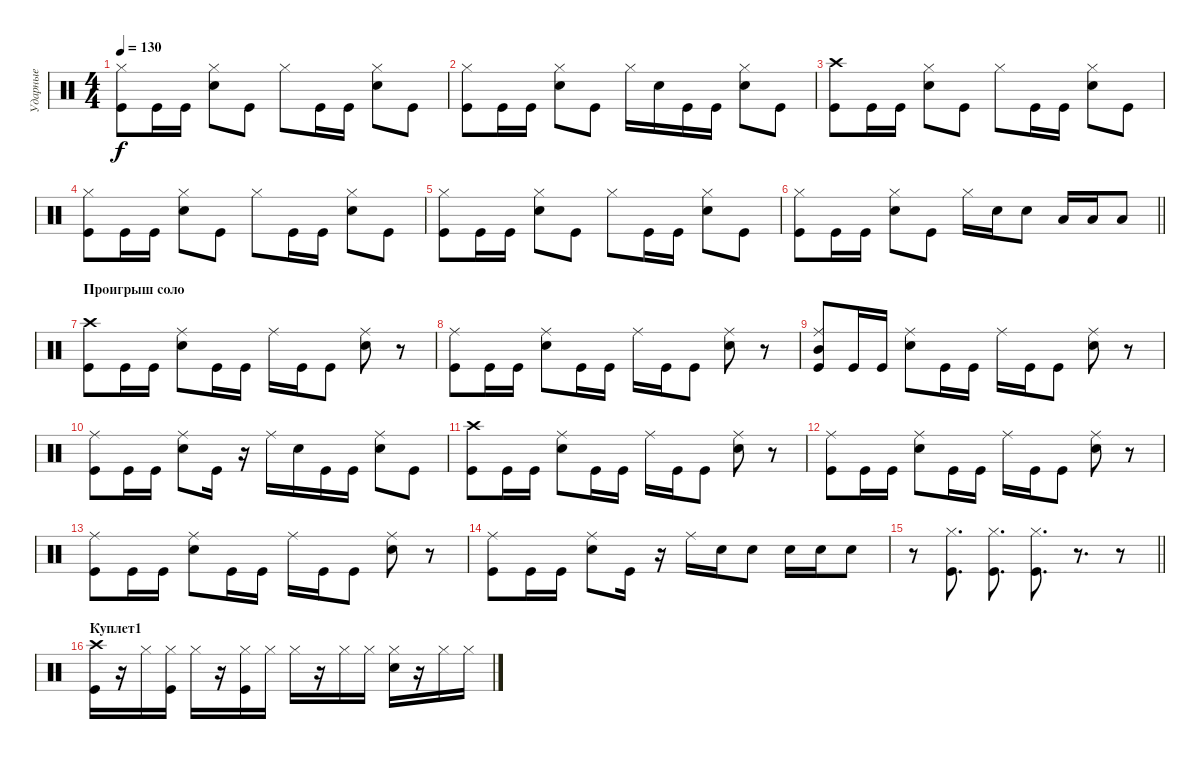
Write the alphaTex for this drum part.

\track ("Ударные" "Ударные") {instrument percussion}
\staff {score}
\articulation defaults
\ts (4 4)
\tempo 130
\clef neutral
\ks c
("Hi-Hat (closed)" "Kick (hit)").8{dy f} "Kick (hit)".16 "Kick (hit)".16 ("Hi-Hat (closed)" "Snare (hit) 2").8 "Kick (hit)".8 "Hi-Hat (closed)".8 "Kick (hit)".16 "Kick (hit)".16 ("Hi-Hat (closed)" "Snare (hit) 2").8 "Kick (hit)".8 |
("Hi-Hat (closed)" "Kick (hit)").8 "Kick (hit)".16 "Kick (hit)".16 ("Hi-Hat (closed)" "Snare (hit) 2").8 "Kick (hit)".8 "Hi-Hat (closed)".16 "Snare (hit) 2".16 "Kick (hit)".16 "Kick (hit)".16 ("Hi-Hat (closed)" "Snare (hit) 2").8 "Kick (hit)".8 |
("Crash high (hit)" "Kick (hit)").8 "Kick (hit)".16 "Kick (hit)".16 ("Hi-Hat (closed)" "Snare (hit) 2").8 "Kick (hit)".8 "Hi-Hat (closed)".8 "Kick (hit)".16 "Kick (hit)".16 ("Hi-Hat (closed)" "Snare (hit) 2").8 "Kick (hit)".8 |
("Hi-Hat (closed)" "Kick (hit)").8 "Kick (hit)".16 "Kick (hit)".16 ("Hi-Hat (closed)" "Snare (hit) 2").8 "Kick (hit)".8 "Hi-Hat (closed)".8 "Kick (hit)".16 "Kick (hit)".16 ("Hi-Hat (closed)" "Snare (hit) 2").8 "Kick (hit)".8 |
("Hi-Hat (closed)" "Kick (hit)").8 "Kick (hit)".16 "Kick (hit)".16 ("Hi-Hat (closed)" "Snare (hit) 2").8 "Kick (hit)".8 "Hi-Hat (closed)".8 "Kick (hit)".16 "Kick (hit)".16 ("Hi-Hat (closed)" "Snare (hit) 2").8 "Kick (hit)".8 |
\barLineRight lightlight
("Hi-Hat (closed)" "Kick (hit)").8 "Kick (hit)".16 "Kick (hit)".16 ("Hi-Hat (closed)" "Snare (hit) 2").8 "Kick (hit)".8 "Hi-Hat (closed)".16 "Snare (hit) 2".16 "Snare (hit) 2".8 "Low Tom (hit)".16 "Low Tom (hit)".16 "Low Tom (hit)".8 |
\section ("" "Проигрыш соло")
("Crash high (hit)" "Kick (hit)").8 "Kick (hit)".16 "Kick (hit)".16 ("Ride (middle)" "Snare (hit) 2").8 "Kick (hit)".16 "Kick (hit)".16 "Ride (middle)".16 "Kick (hit)".16 "Kick (hit)".8 ("Ride (middle)" "Snare (hit) 2").8 r.8 |
("Ride (middle)" "Kick (hit)").8 "Kick (hit)".16 "Kick (hit)".16 ("Ride (middle)" "Snare (hit) 2").8 "Kick (hit)".16 "Kick (hit)".16 "Ride (middle)".16 "Kick (hit)".16 "Kick (hit)".8 ("Ride (middle)" "Snare (hit) 2").8 r.8 |
("Ride (middle)" "Mid Tom (hit)" "Kick (hit)").8 "Kick (hit)".16 "Kick (hit)".16 ("Ride (middle)" "Snare (hit) 2").8 "Kick (hit)".16 "Kick (hit)".16 "Ride (middle)".16 "Kick (hit)".16 "Kick (hit)".8 ("Ride (middle)" "Snare (hit) 2").8 r.8 |
("Ride (middle)" "Kick (hit)").8 "Kick (hit)".16 "Kick (hit)".16 ("Ride (middle)" "Snare (hit) 2").8 "Kick (hit)".16 r.16 "Ride (middle)".16 "Snare (hit) 2".16 "Kick (hit)".16 "Kick (hit)".16 ("Ride (middle)" "Snare (hit) 2").8 "Kick (hit)".8 |
("Crash high (hit)" "Kick (hit)").8 "Kick (hit)".16 "Kick (hit)".16 ("Ride (middle)" "Snare (hit) 2").8 "Kick (hit)".16 "Kick (hit)".16 "Ride (middle)".16 "Kick (hit)".16 "Kick (hit)".8 ("Ride (middle)" "Snare (hit) 2").8 r.8 |
("Ride (middle)" "Kick (hit)").8 "Kick (hit)".16 "Kick (hit)".16 ("Ride (middle)" "Snare (hit) 2").8 "Kick (hit)".16 "Kick (hit)".16 "Ride (middle)".16 "Kick (hit)".16 "Kick (hit)".8 ("Ride (middle)" "Snare (hit) 2").8 r.8 |
("Ride (middle)" "Kick (hit)").8 "Kick (hit)".16 "Kick (hit)".16 ("Ride (middle)" "Snare (hit) 2").8 "Kick (hit)".16 "Kick (hit)".16 "Ride (middle)".16 "Kick (hit)".16 "Kick (hit)".8 ("Ride (middle)" "Snare (hit) 2").8 r.8 |
("Ride (middle)" "Kick (hit)").8 "Kick (hit)".16 "Kick (hit)".16 ("Ride (middle)" "Snare (hit) 2").8 "Kick (hit)".16 r.16 "Ride (middle)".16 "Snare (hit) 2".16 "Snare (hit) 2".8 "Snare (hit) 2".16 "Snare (hit) 2".16 "Snare (hit) 2".8 |
\barLineRight lightlight
r.8 ("Hi-Hat (closed)" "Kick (hit)").8{d} ("Hi-Hat (closed)" "Kick (hit)").8{d} ("Hi-Hat (closed)" "Kick (hit)").8{d} r.8{d} r.8 |
\section ("" "Куплет1")
("Crash high (hit)" "Kick (hit)").16 r.16 "Hi-Hat (closed)".16 ("Hi-Hat (closed)" "Kick (hit)").16 "Hi-Hat (closed)".16 r.16 ("Hi-Hat (closed)" "Kick (hit)").16 "Hi-Hat (closed)".16 "Hi-Hat (closed)".16 r.16 "Hi-Hat (closed)".16 "Hi-Hat (closed)".16 ("Hi-Hat (closed)" "Snare (hit) 2").16 r.16 "Hi-Hat (closed)".16 "Hi-Hat (closed)".16
